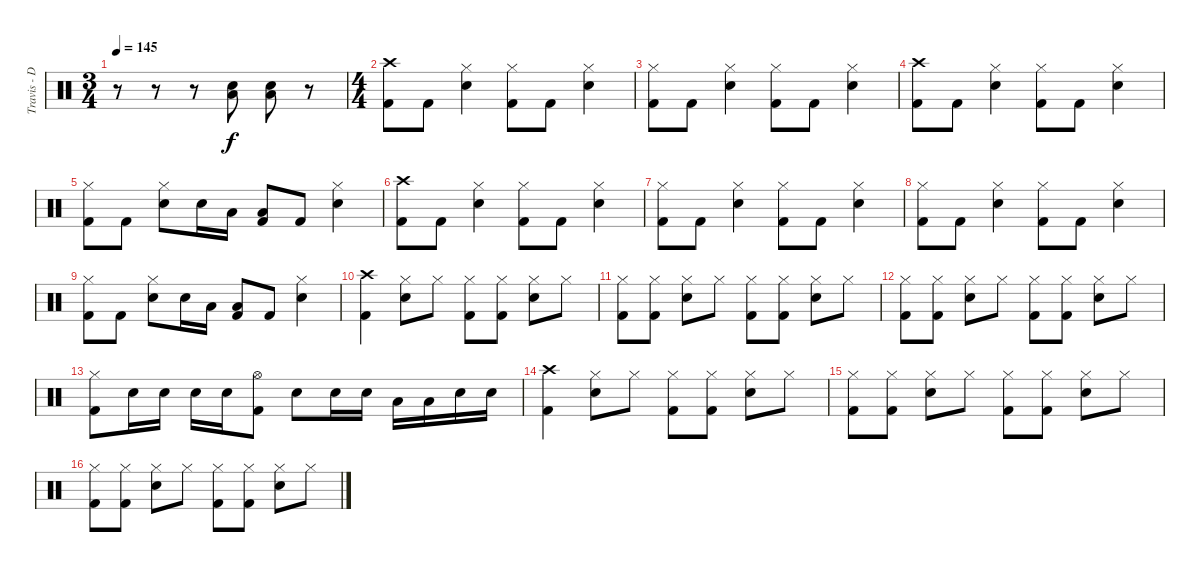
\track ("Travis - Drums" "Travis - D") {instrument percussion}
\staff {score}
\articulation defaults
\ts (3 4)
\tempo 145
\clef neutral
\ks c
r.8{dy f} r.8 r.8 ("Snare (hit) 2" "Low Floor Tom (hit)").8 ("Snare (hit) 2" "Low Floor Tom (hit)").8 r.8 |
\ts (4 4)
("Crash high (hit)" "Kick (hit) 2").8 "Kick (hit) 2".8 ("Hi-Hat (closed)" "Snare (hit) 2").4 ("Hi-Hat (closed)" "Kick (hit) 2").8 "Kick (hit) 2".8 ("Hi-Hat (closed)" "Snare (hit) 2").4 |
("Hi-Hat (closed)" "Kick (hit) 2").8 "Kick (hit) 2".8 ("Hi-Hat (closed)" "Snare (hit) 2").4 ("Hi-Hat (closed)" "Kick (hit) 2").8 "Kick (hit) 2".8 ("Hi-Hat (closed)" "Snare (hit) 2").4 |
("Crash high (hit)" "Kick (hit) 2").8 "Kick (hit) 2".8 ("Hi-Hat (closed)" "Snare (hit) 2").4 ("Hi-Hat (closed)" "Kick (hit) 2").8 "Kick (hit) 2".8 ("Hi-Hat (closed)" "Snare (hit) 2").4 |
("Hi-Hat (closed)" "Kick (hit) 2").8 "Kick (hit) 2".8 ("Hi-Hat (closed)" "Snare (hit) 2").8 "Snare (hit) 2".16 "Low Tom (hit)".16 ("Low Floor Tom (hit)" "Kick (hit) 2").8 "Kick (hit) 2".8 ("Hi-Hat (closed)" "Snare (hit) 2").4 |
("Crash high (hit)" "Kick (hit) 2").8 "Kick (hit) 2".8 ("Hi-Hat (closed)" "Snare (hit) 2").4 ("Hi-Hat (closed)" "Kick (hit) 2").8 "Kick (hit) 2".8 ("Hi-Hat (closed)" "Snare (hit) 2").4 |
("Hi-Hat (closed)" "Kick (hit) 2").8 "Kick (hit) 2".8 ("Hi-Hat (closed)" "Snare (hit) 2").4 ("Hi-Hat (closed)" "Kick (hit) 2").8 "Kick (hit) 2".8 ("Hi-Hat (closed)" "Snare (hit) 2").4 |
("Hi-Hat (closed)" "Kick (hit) 2").8 "Kick (hit) 2".8 ("Hi-Hat (closed)" "Snare (hit) 2").4 ("Hi-Hat (closed)" "Kick (hit) 2").8 "Kick (hit) 2".8 ("Hi-Hat (closed)" "Snare (hit) 2").4 |
("Hi-Hat (closed)" "Kick (hit) 2").8 "Kick (hit) 2".8 ("Hi-Hat (closed)" "Snare (hit) 2").8 "Snare (hit) 2".16 "Low Tom (hit)".16 ("Low Floor Tom (hit)" "Kick (hit) 2").8 "Kick (hit) 2".8 ("Hi-Hat (closed)" "Snare (hit) 2").4 |
("Crash high (hit)" "Kick (hit) 2").4 ("Hi-Hat (closed)" "Snare (hit) 2").8 "Hi-Hat (closed)".8 ("Hi-Hat (closed)" "Kick (hit) 2").8 ("Hi-Hat (closed)" "Kick (hit) 2").8 ("Hi-Hat (closed)" "Snare (hit) 2").8 "Hi-Hat (closed)".8 |
("Hi-Hat (closed)" "Kick (hit) 2").8 ("Hi-Hat (closed)" "Kick (hit) 2").8 ("Hi-Hat (closed)" "Snare (hit) 2").8 "Hi-Hat (closed)".8 ("Hi-Hat (closed)" "Kick (hit) 2").8 ("Hi-Hat (closed)" "Kick (hit) 2").8 ("Hi-Hat (closed)" "Snare (hit) 2").8 "Hi-Hat (closed)".8 |
("Hi-Hat (closed)" "Kick (hit) 2").8 ("Hi-Hat (closed)" "Kick (hit) 2").8 ("Hi-Hat (closed)" "Snare (hit) 2").8 "Hi-Hat (closed)".8 ("Hi-Hat (closed)" "Kick (hit) 2").8 ("Hi-Hat (closed)" "Kick (hit) 2").8 ("Hi-Hat (closed)" "Snare (hit) 2").8 "Hi-Hat (closed)".8 |
("Hi-Hat (closed)" "Kick (hit) 2").8 "Snare (hit) 2".16 "Snare (hit) 2".16 "Snare (hit) 2".16 "Snare (hit) 2".16 ("Hi-Hat (open)" "Kick (hit) 2").8 "Snare (hit) 2".8 "Snare (hit) 2".16 "Snare (hit) 2".16 "Low Tom (hit)".16 "Low Tom (hit)".16 "Snare (hit) 2".16 "Snare (hit) 2".16 |
("Crash high (hit)" "Kick (hit) 2").4 ("Hi-Hat (closed)" "Snare (hit) 2").8 "Hi-Hat (closed)".8 ("Hi-Hat (closed)" "Kick (hit) 2").8 ("Hi-Hat (closed)" "Kick (hit) 2").8 ("Hi-Hat (closed)" "Snare (hit) 2").8 "Hi-Hat (closed)".8 |
("Hi-Hat (closed)" "Kick (hit) 2").8 ("Hi-Hat (closed)" "Kick (hit) 2").8 ("Hi-Hat (closed)" "Snare (hit) 2").8 "Hi-Hat (closed)".8 ("Hi-Hat (closed)" "Kick (hit) 2").8 ("Hi-Hat (closed)" "Kick (hit) 2").8 ("Hi-Hat (closed)" "Snare (hit) 2").8 "Hi-Hat (closed)".8 |
("Hi-Hat (closed)" "Kick (hit) 2").8 ("Hi-Hat (closed)" "Kick (hit) 2").8 ("Hi-Hat (closed)" "Snare (hit) 2").8 "Hi-Hat (closed)".8 ("Hi-Hat (closed)" "Kick (hit) 2").8 ("Hi-Hat (closed)" "Kick (hit) 2").8 ("Hi-Hat (closed)" "Snare (hit) 2").8 "Hi-Hat (closed)".8
